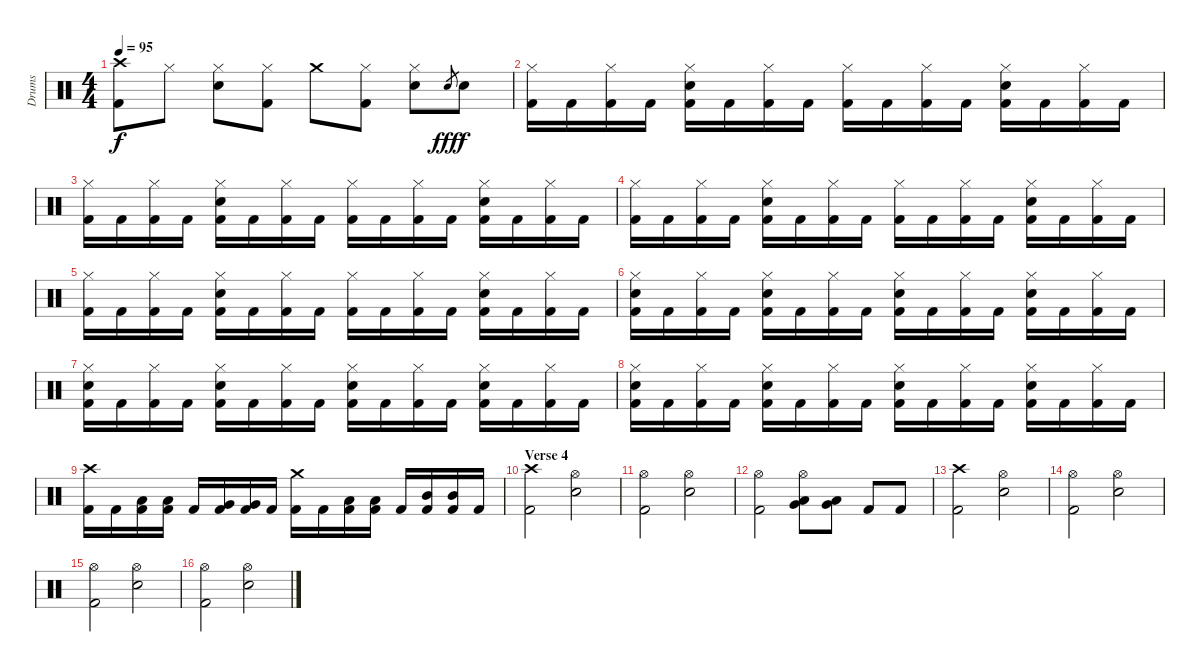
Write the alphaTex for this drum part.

\track ("Drums" "Drums") {instrument percussion}
\staff {score}
\articulation defaults
\ts (4 4)
\tempo 95
\clef neutral
\ks c
("Crash high (hit)" "Kick (hit) 2").8{dy f} "Hi-Hat (closed)".8 ("Hi-Hat (closed)" "Electric Snare (hit)").8 ("Hi-Hat (closed)" "Kick (hit) 2").8 "Crash medium (hit)".8 ("Hi-Hat (closed)" "Kick (hit) 2").8 ("Hi-Hat (closed)" "Electric Snare (hit)").8 "Electric Snare (hit)"{h}.8{gr dy fff} "Electric Snare (hit)".8{dy f} |
("Hi-Hat (closed)" "Kick (hit) 2").16 "Kick (hit) 2".16 ("Hi-Hat (closed)" "Kick (hit) 2").16 "Kick (hit) 2".16 ("Hi-Hat (closed)" "Electric Snare (hit)" "Kick (hit) 2").16 "Kick (hit) 2".16 ("Hi-Hat (closed)" "Kick (hit) 2").16 "Kick (hit) 2".16 ("Hi-Hat (closed)" "Kick (hit) 2").16 "Kick (hit) 2".16 ("Hi-Hat (closed)" "Kick (hit) 2").16 "Kick (hit) 2".16 ("Hi-Hat (closed)" "Electric Snare (hit)" "Kick (hit) 2").16 "Kick (hit) 2".16 ("Hi-Hat (closed)" "Kick (hit) 2").16 "Kick (hit) 2".16 |
("Hi-Hat (closed)" "Kick (hit) 2").16 "Kick (hit) 2".16 ("Hi-Hat (closed)" "Kick (hit) 2").16 "Kick (hit) 2".16 ("Hi-Hat (closed)" "Electric Snare (hit)" "Kick (hit) 2").16 "Kick (hit) 2".16 ("Hi-Hat (closed)" "Kick (hit) 2").16 "Kick (hit) 2".16 ("Hi-Hat (closed)" "Kick (hit) 2").16 "Kick (hit) 2".16 ("Hi-Hat (closed)" "Kick (hit) 2").16 "Kick (hit) 2".16 ("Hi-Hat (closed)" "Electric Snare (hit)" "Kick (hit) 2").16 "Kick (hit) 2".16 ("Hi-Hat (closed)" "Kick (hit) 2").16 "Kick (hit) 2".16 |
("Hi-Hat (closed)" "Kick (hit) 2").16 "Kick (hit) 2".16 ("Hi-Hat (closed)" "Kick (hit) 2").16 "Kick (hit) 2".16 ("Hi-Hat (closed)" "Electric Snare (hit)" "Kick (hit) 2").16 "Kick (hit) 2".16 ("Hi-Hat (closed)" "Kick (hit) 2").16 "Kick (hit) 2".16 ("Hi-Hat (closed)" "Kick (hit) 2").16 "Kick (hit) 2".16 ("Hi-Hat (closed)" "Kick (hit) 2").16 "Kick (hit) 2".16 ("Hi-Hat (closed)" "Electric Snare (hit)" "Kick (hit) 2").16 "Kick (hit) 2".16 ("Hi-Hat (closed)" "Kick (hit) 2").16 "Kick (hit) 2".16 |
("Hi-Hat (closed)" "Kick (hit) 2").16 "Kick (hit) 2".16 ("Hi-Hat (closed)" "Kick (hit) 2").16 "Kick (hit) 2".16 ("Hi-Hat (closed)" "Electric Snare (hit)" "Kick (hit) 2").16 "Kick (hit) 2".16 ("Hi-Hat (closed)" "Kick (hit) 2").16 "Kick (hit) 2".16 ("Hi-Hat (closed)" "Kick (hit) 2").16 "Kick (hit) 2".16 ("Hi-Hat (closed)" "Kick (hit) 2").16 "Kick (hit) 2".16 ("Hi-Hat (closed)" "Electric Snare (hit)" "Kick (hit) 2").16 "Kick (hit) 2".16 ("Hi-Hat (closed)" "Kick (hit) 2").16 "Kick (hit) 2".16 |
("Hi-Hat (closed)" "Electric Snare (hit)" "Kick (hit) 2").16 "Kick (hit) 2".16 ("Hi-Hat (closed)" "Kick (hit) 2").16 "Kick (hit) 2".16 ("Hi-Hat (closed)" "Electric Snare (hit)" "Kick (hit) 2").16 "Kick (hit) 2".16 ("Hi-Hat (closed)" "Kick (hit) 2").16 "Kick (hit) 2".16 ("Hi-Hat (closed)" "Electric Snare (hit)" "Kick (hit) 2").16 "Kick (hit) 2".16 ("Hi-Hat (closed)" "Kick (hit) 2").16 "Kick (hit) 2".16 ("Hi-Hat (closed)" "Electric Snare (hit)" "Kick (hit) 2").16 "Kick (hit) 2".16 ("Hi-Hat (closed)" "Kick (hit) 2").16 "Kick (hit) 2".16 |
("Hi-Hat (closed)" "Electric Snare (hit)" "Kick (hit) 2").16 "Kick (hit) 2".16 ("Hi-Hat (closed)" "Kick (hit) 2").16 "Kick (hit) 2".16 ("Hi-Hat (closed)" "Electric Snare (hit)" "Kick (hit) 2").16 "Kick (hit) 2".16 ("Hi-Hat (closed)" "Kick (hit) 2").16 "Kick (hit) 2".16 ("Hi-Hat (closed)" "Electric Snare (hit)" "Kick (hit) 2").16 "Kick (hit) 2".16 ("Hi-Hat (closed)" "Kick (hit) 2").16 "Kick (hit) 2".16 ("Hi-Hat (closed)" "Electric Snare (hit)" "Kick (hit) 2").16 "Kick (hit) 2".16 ("Hi-Hat (closed)" "Kick (hit) 2").16 "Kick (hit) 2".16 |
("Hi-Hat (closed)" "Electric Snare (hit)" "Kick (hit) 2").16 "Kick (hit) 2".16 ("Hi-Hat (closed)" "Kick (hit) 2").16 "Kick (hit) 2".16 ("Hi-Hat (closed)" "Electric Snare (hit)" "Kick (hit) 2").16 "Kick (hit) 2".16 ("Hi-Hat (closed)" "Kick (hit) 2").16 "Kick (hit) 2".16 ("Hi-Hat (closed)" "Electric Snare (hit)" "Kick (hit) 2").16 "Kick (hit) 2".16 ("Hi-Hat (closed)" "Kick (hit) 2").16 "Kick (hit) 2".16 ("Hi-Hat (closed)" "Electric Snare (hit)" "Kick (hit) 2").16 "Kick (hit) 2".16 ("Hi-Hat (closed)" "Kick (hit) 2").16 "Kick (hit) 2".16 |
("Crash high (hit)" "Kick (hit) 2").16 "Kick (hit) 2".16 ("Low Tom (hit)" "Kick (hit) 2").16 ("Low Tom (hit)" "Kick (hit) 2").16 "Kick (hit) 2".16 ("Very Low Tom (hit)" "Kick (hit) 2").16 ("Very Low Tom (hit)" "Kick (hit) 2").16 "Kick (hit) 2".16 ("Crash medium (hit)" "Kick (hit) 2").16 "Kick (hit) 2".16 ("Low Tom (hit)" "Kick (hit) 2").16 ("Low Tom (hit)" "Kick (hit) 2").16 "Kick (hit) 2".16 ("Mid Tom (hit)" "Kick (hit) 2").16 ("Mid Tom (hit)" "Kick (hit) 2").16 "Kick (hit) 2".16 |
\section ("" "Verse 4")
("Crash high (hit)" "Kick (hit) 2").2 ("Hi-Hat (open)" "Electric Snare (hit)").2 |
("Hi-Hat (open)" "Kick (hit) 2").2 ("Hi-Hat (open)" "Electric Snare (hit)").2 |
("Hi-Hat (open)" "Kick (hit) 2").2 ("Hi-Hat (open)" "Low Tom (hit)" "Very Low Tom (hit)").8 ("Low Tom (hit)" "Very Low Tom (hit)").8 "Kick (hit) 2".8 "Kick (hit) 2".8 |
("Crash high (hit)" "Kick (hit) 2").2 ("Hi-Hat (open)" "Electric Snare (hit)").2 |
("Hi-Hat (open)" "Kick (hit) 2").2 ("Hi-Hat (open)" "Electric Snare (hit)").2 |
("Hi-Hat (open)" "Kick (hit) 2").2 ("Hi-Hat (open)" "Electric Snare (hit)").2 |
("Hi-Hat (open)" "Kick (hit) 2").2 ("Hi-Hat (open)" "Electric Snare (hit)").2
